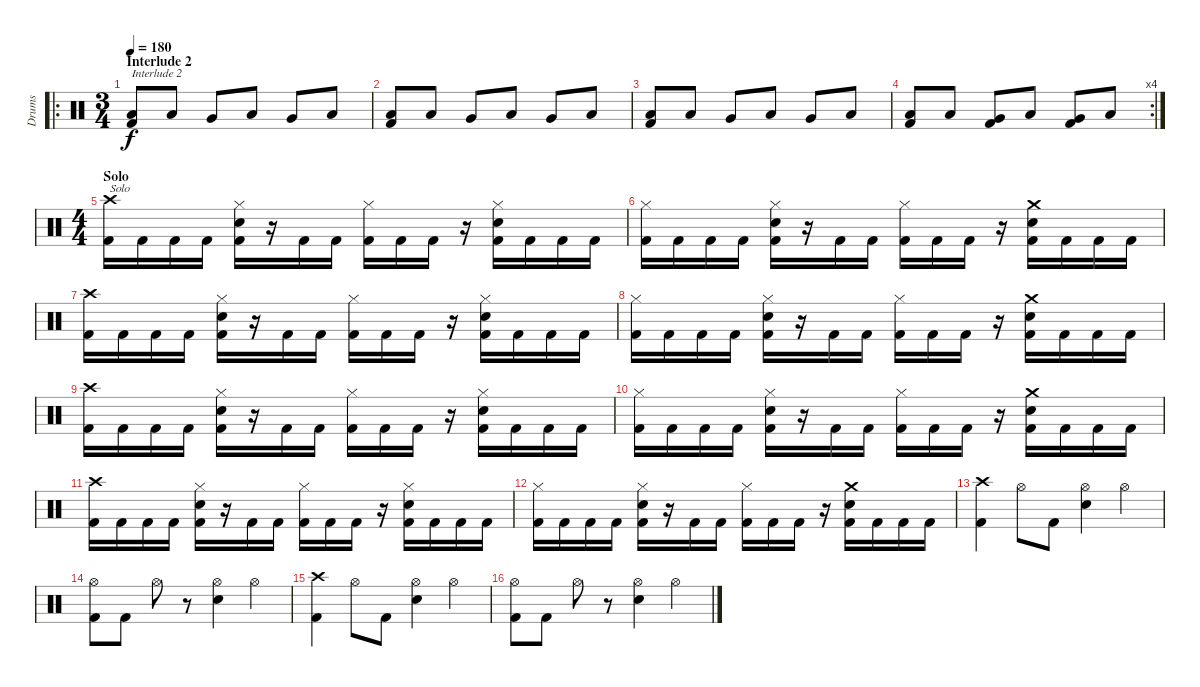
\track ("Drums" "Drums") {instrument percussion}
\staff {score}
\articulation defaults
\ro
\ts (3 4)
\section ("" "Interlude 2")
\tempo 180
\clef neutral
\ks c
("Kick (hit) 2" "Low Tom (hit)").8{txt "Interlude 2" dy f} "Low Floor Tom (hit)".8 "Very Low Tom (hit)".8 "Low Tom (hit)".8 "Very Low Tom (hit)".8 "Low Tom (hit)".8 |
("Kick (hit) 2" "Low Tom (hit)").8 "Low Floor Tom (hit)".8 "Very Low Tom (hit)".8 "Low Tom (hit)".8 "Very Low Tom (hit)".8 "Low Tom (hit)".8 |
("Kick (hit) 2" "Low Tom (hit)").8 "Low Floor Tom (hit)".8 "Very Low Tom (hit)".8 "Low Tom (hit)".8 "Very Low Tom (hit)".8 "Low Tom (hit)".8 |
\rc 4
("Kick (hit) 2" "Low Tom (hit)").8 "Low Floor Tom (hit)".8 ("Kick (hit) 2" "Very Low Tom (hit)").8 "Low Tom (hit)".8 ("Kick (hit) 2" "Very Low Tom (hit)").8 "Low Tom (hit)".8 |
\ts (4 4)
\section ("" "Solo")
("Kick (hit) 2" "Crash high (hit)").16{txt "Solo"} "Kick (hit) 2".16 "Kick (hit) 2".16 "Kick (hit) 2".16 ("Kick (hit) 2" "Snare (hit) 2" "Hi-Hat (closed)").16 r.16 "Kick (hit) 2".16 "Kick (hit) 2".16 ("Kick (hit) 2" "Hi-Hat (closed)").16 "Kick (hit) 2".16 "Kick (hit) 2".16 r.16 ("Kick (hit) 2" "Snare (hit) 2" "Hi-Hat (closed)").16 "Kick (hit) 2".16 "Kick (hit) 2".16 "Kick (hit) 2".16 |
("Kick (hit) 2" "Hi-Hat (closed)").16 "Kick (hit) 2".16 "Kick (hit) 2".16 "Kick (hit) 2".16 ("Kick (hit) 2" "Snare (hit) 2" "Hi-Hat (closed)").16 r.16 "Kick (hit) 2".16 "Kick (hit) 2".16 ("Kick (hit) 2" "Hi-Hat (closed)").16 "Kick (hit) 2".16 "Kick (hit) 2".16 r.16 ("Kick (hit) 2" "Snare (hit) 2" "Crash medium (hit)").16 "Kick (hit) 2".16 "Kick (hit) 2".16 "Kick (hit) 2".16 |
("Kick (hit) 2" "Crash high (hit)").16 "Kick (hit) 2".16 "Kick (hit) 2".16 "Kick (hit) 2".16 ("Kick (hit) 2" "Snare (hit) 2" "Hi-Hat (closed)").16 r.16 "Kick (hit) 2".16 "Kick (hit) 2".16 ("Kick (hit) 2" "Hi-Hat (closed)").16 "Kick (hit) 2".16 "Kick (hit) 2".16 r.16 ("Kick (hit) 2" "Snare (hit) 2" "Hi-Hat (closed)").16 "Kick (hit) 2".16 "Kick (hit) 2".16 "Kick (hit) 2".16 |
("Kick (hit) 2" "Hi-Hat (closed)").16 "Kick (hit) 2".16 "Kick (hit) 2".16 "Kick (hit) 2".16 ("Kick (hit) 2" "Snare (hit) 2" "Hi-Hat (closed)").16 r.16 "Kick (hit) 2".16 "Kick (hit) 2".16 ("Kick (hit) 2" "Hi-Hat (closed)").16 "Kick (hit) 2".16 "Kick (hit) 2".16 r.16 ("Kick (hit) 2" "Snare (hit) 2" "Crash medium (hit)").16 "Kick (hit) 2".16 "Kick (hit) 2".16 "Kick (hit) 2".16 |
("Kick (hit) 2" "Crash high (hit)").16 "Kick (hit) 2".16 "Kick (hit) 2".16 "Kick (hit) 2".16 ("Kick (hit) 2" "Snare (hit) 2" "Hi-Hat (closed)").16 r.16 "Kick (hit) 2".16 "Kick (hit) 2".16 ("Kick (hit) 2" "Hi-Hat (closed)").16 "Kick (hit) 2".16 "Kick (hit) 2".16 r.16 ("Kick (hit) 2" "Snare (hit) 2" "Hi-Hat (closed)").16 "Kick (hit) 2".16 "Kick (hit) 2".16 "Kick (hit) 2".16 |
("Kick (hit) 2" "Hi-Hat (closed)").16 "Kick (hit) 2".16 "Kick (hit) 2".16 "Kick (hit) 2".16 ("Kick (hit) 2" "Snare (hit) 2" "Hi-Hat (closed)").16 r.16 "Kick (hit) 2".16 "Kick (hit) 2".16 ("Kick (hit) 2" "Hi-Hat (closed)").16 "Kick (hit) 2".16 "Kick (hit) 2".16 r.16 ("Kick (hit) 2" "Snare (hit) 2" "Crash medium (hit)").16 "Kick (hit) 2".16 "Kick (hit) 2".16 "Kick (hit) 2".16 |
("Kick (hit) 2" "Crash high (hit)").16 "Kick (hit) 2".16 "Kick (hit) 2".16 "Kick (hit) 2".16 ("Kick (hit) 2" "Snare (hit) 2" "Hi-Hat (closed)").16 r.16 "Kick (hit) 2".16 "Kick (hit) 2".16 ("Kick (hit) 2" "Hi-Hat (closed)").16 "Kick (hit) 2".16 "Kick (hit) 2".16 r.16 ("Kick (hit) 2" "Snare (hit) 2" "Hi-Hat (closed)").16 "Kick (hit) 2".16 "Kick (hit) 2".16 "Kick (hit) 2".16 |
("Kick (hit) 2" "Hi-Hat (closed)").16 "Kick (hit) 2".16 "Kick (hit) 2".16 "Kick (hit) 2".16 ("Kick (hit) 2" "Snare (hit) 2" "Hi-Hat (closed)").16 r.16 "Kick (hit) 2".16 "Kick (hit) 2".16 ("Kick (hit) 2" "Hi-Hat (closed)").16 "Kick (hit) 2".16 "Kick (hit) 2".16 r.16 ("Kick (hit) 2" "Snare (hit) 2" "Crash medium (hit)").16 "Kick (hit) 2".16 "Kick (hit) 2".16 "Kick (hit) 2".16 |
("Kick (hit) 2" "Crash high (hit)").4 "Hi-Hat (open)".8 "Kick (hit) 2".8 ("Hi-Hat (open)" "Electric Snare (hit)").4 "Hi-Hat (open)".4 |
("Kick (hit) 2" "Hi-Hat (open)").8 "Kick (hit) 2".8 "Hi-Hat (open)".8 r.8 ("Hi-Hat (open)" "Electric Snare (hit)").4 "Hi-Hat (open)".4 |
("Kick (hit) 2" "Crash high (hit)").4 "Hi-Hat (open)".8 "Kick (hit) 2".8 ("Hi-Hat (open)" "Electric Snare (hit)").4 "Hi-Hat (open)".4 |
("Kick (hit) 2" "Hi-Hat (open)").8 "Kick (hit) 2".8 "Hi-Hat (open)".8 r.8 ("Hi-Hat (open)" "Electric Snare (hit)").4 "Hi-Hat (open)".4
